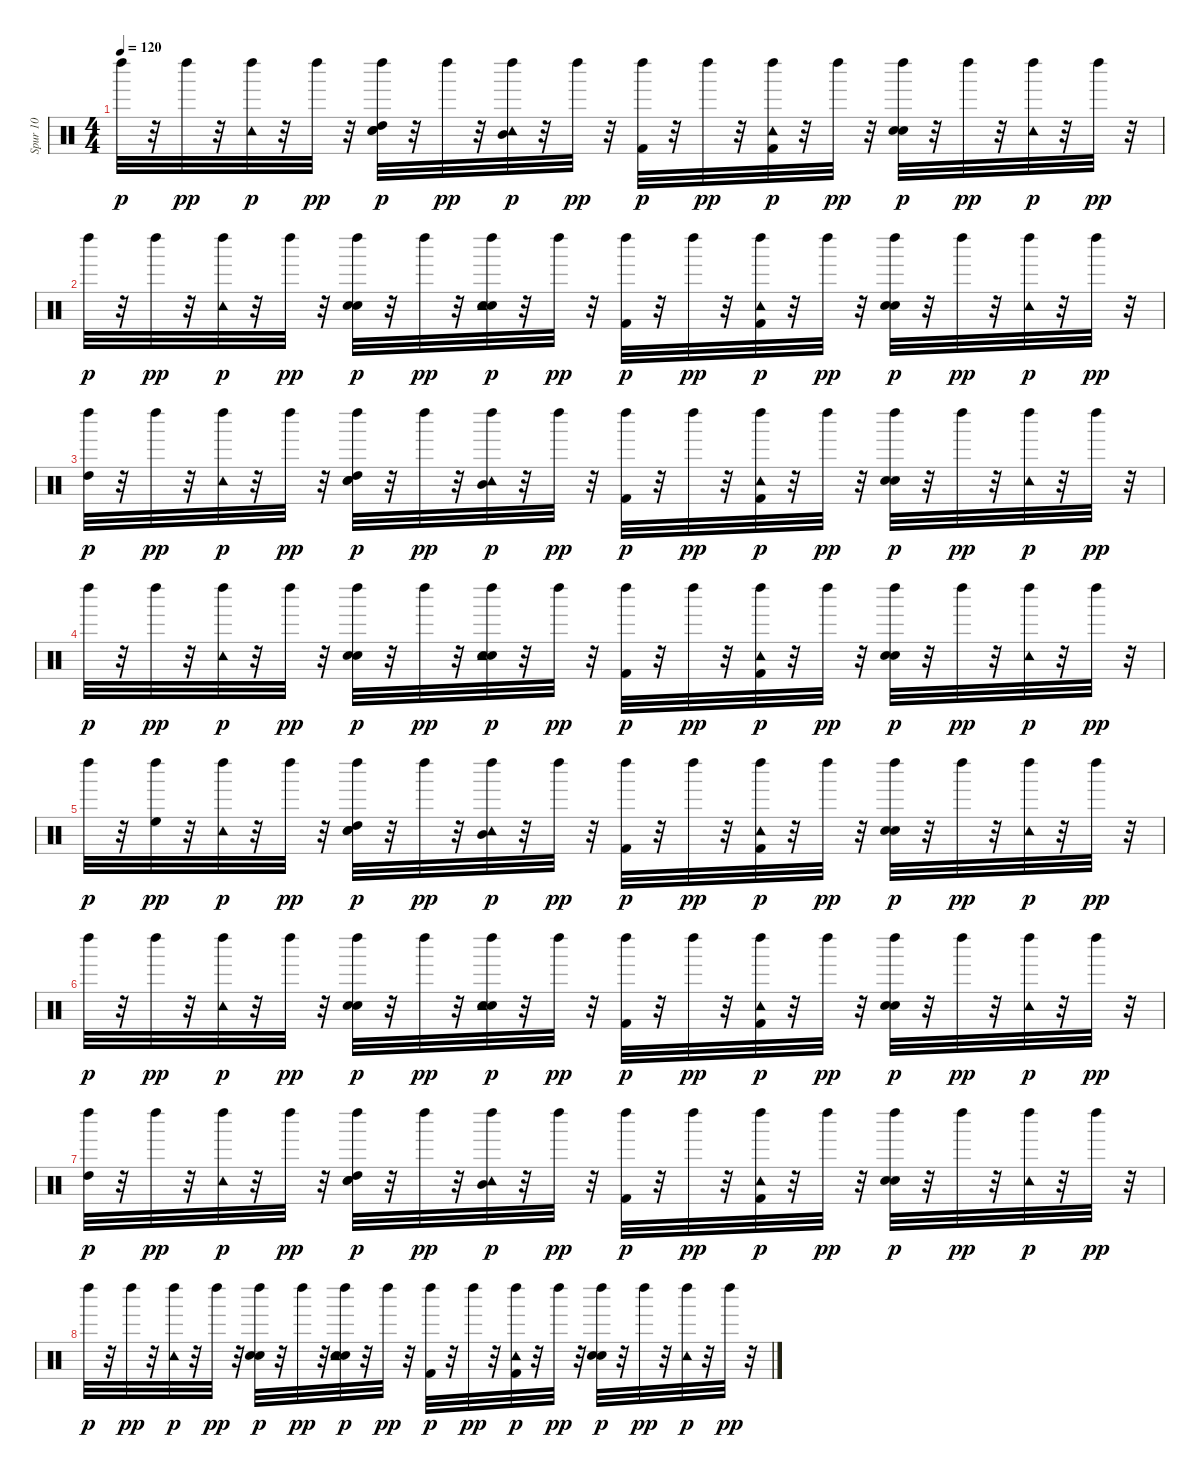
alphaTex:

\track ("Spur 10" "Spur 10") {instrument percussion}
\staff {score}
\articulation defaults
\ts (4 4)
\tempo 120
\clef neutral
\ks c "Left Maraca (hit)".32{dy p}
r.32 "Left Maraca (hit)".32{dy pp} r.32 ("Tambourine (hit)" "Left Maraca (hit)").32{dy p} r.32 "Left Maraca (hit)".32{dy pp} r.32 ("Hand Clap (hit)" "Electric Snare (hit)" "High Tom (hit)" "Left Maraca (hit)").32{dy p} r.32 "Left Maraca (hit)".32{dy pp} r.32 ("Mid Tom (hit)" "Tambourine (hit)" "Left Maraca (hit)").32{dy p} r.32 "Left Maraca (hit)".32{dy pp} r.32 ("Kick (hit) 2" "Left Maraca (hit)").32{dy p} r.32 "Left Maraca (hit)".32{dy pp} r.32 ("Kick (hit) 2" "Tambourine (hit)" "Left Maraca (hit)").32{dy p} r.32 "Left Maraca (hit)".32{dy pp} r.32 ("Hand Clap (hit)" "Electric Snare (hit)" "Left Maraca (hit)").32{dy p} r.32 "Left Maraca (hit)".32{dy pp} r.32 ("Tambourine (hit)" "Left Maraca (hit)").32{dy p} r.32 "Left Maraca (hit)".32{dy pp} r.32 |
"Left Maraca (hit)".32{dy p} r.32 "Left Maraca (hit)".32{dy pp} r.32 ("Tambourine (hit)" "Left Maraca (hit)").32{dy p} r.32 "Left Maraca (hit)".32{dy pp} r.32 ("Hand Clap (hit)" "Electric Snare (hit)" "Left Maraca (hit)").32{dy p} r.32 "Left Maraca (hit)".32{dy pp} r.32 ("Hand Clap (hit)" "Electric Snare (hit)" "Tambourine (hit)" "Left Maraca (hit)").32{dy p} r.32 "Left Maraca (hit)".32{dy pp} r.32 ("Kick (hit) 2" "Left Maraca (hit)").32{dy p} r.32 "Left Maraca (hit)".32{dy pp} r.32 ("Kick (hit) 2" "Tambourine (hit)" "Left Maraca (hit)").32{dy p} r.32 "Left Maraca (hit)".32{dy pp} r.32 ("Hand Clap (hit)" "Electric Snare (hit)" "Left Maraca (hit)").32{dy p} r.32 "Left Maraca (hit)".32{dy pp} r.32 ("Tambourine (hit)" "Left Maraca (hit)").32{dy p} r.32 "Left Maraca (hit)".32{dy pp} r.32 |
("High Tom (hit)" "Left Maraca (hit)").32{dy p} r.32 "Left Maraca (hit)".32{dy pp} r.32 ("Tambourine (hit)" "Left Maraca (hit)").32{dy p} r.32 "Left Maraca (hit)".32{dy pp} r.32 ("Hand Clap (hit)" "Electric Snare (hit)" "High Tom (hit)" "Left Maraca (hit)").32{dy p} r.32 "Left Maraca (hit)".32{dy pp} r.32 ("Mid Tom (hit)" "Tambourine (hit)" "Left Maraca (hit)").32{dy p} r.32 "Left Maraca (hit)".32{dy pp} r.32 ("Kick (hit) 2" "Left Maraca (hit)").32{dy p} r.32 "Left Maraca (hit)".32{dy pp} r.32 ("Kick (hit) 2" "Tambourine (hit)" "Left Maraca (hit)").32{dy p} r.32 "Left Maraca (hit)".32{dy pp} r.32 ("Hand Clap (hit)" "Electric Snare (hit)" "Left Maraca (hit)").32{dy p} r.32 "Left Maraca (hit)".32{dy pp} r.32 ("Tambourine (hit)" "Left Maraca (hit)").32{dy p} r.32 "Left Maraca (hit)".32{dy pp} r.32 |
"Left Maraca (hit)".32{dy p} r.32 "Left Maraca (hit)".32{dy pp} r.32 ("Tambourine (hit)" "Left Maraca (hit)").32{dy p} r.32 "Left Maraca (hit)".32{dy pp} r.32 ("Hand Clap (hit)" "Electric Snare (hit)" "Left Maraca (hit)").32{dy p} r.32 "Left Maraca (hit)".32{dy pp} r.32 ("Hand Clap (hit)" "Electric Snare (hit)" "Tambourine (hit)" "Left Maraca (hit)").32{dy p} r.32 "Left Maraca (hit)".32{dy pp} r.32 ("Kick (hit) 2" "Left Maraca (hit)").32{dy p} r.32 "Left Maraca (hit)".32{dy pp} r.32 ("Kick (hit) 2" "Tambourine (hit)" "Left Maraca (hit)").32{dy p} r.32 "Left Maraca (hit)".32{dy pp} r.32 ("Hand Clap (hit)" "Electric Snare (hit)" "Left Maraca (hit)").32{dy p} r.32 "Left Maraca (hit)".32{dy pp} r.32 ("Tambourine (hit)" "Left Maraca (hit)").32{dy p} r.32 "Left Maraca (hit)".32{dy pp} r.32 |
"Left Maraca (hit)".32{dy p} r.32 ("High Floor Tom (hit)" "Left Maraca (hit)").32{dy pp} r.32 ("Tambourine (hit)" "Left Maraca (hit)").32{dy p} r.32 "Left Maraca (hit)".32{dy pp} r.32 ("Hand Clap (hit)" "Electric Snare (hit)" "High Tom (hit)" "Left Maraca (hit)").32{dy p} r.32 "Left Maraca (hit)".32{dy pp} r.32 ("Mid Tom (hit)" "Tambourine (hit)" "Left Maraca (hit)").32{dy p} r.32 "Left Maraca (hit)".32{dy pp} r.32 ("Kick (hit) 2" "Left Maraca (hit)").32{dy p} r.32 "Left Maraca (hit)".32{dy pp} r.32 ("Kick (hit) 2" "Tambourine (hit)" "Left Maraca (hit)").32{dy p} r.32 "Left Maraca (hit)".32{dy pp} r.32 ("Hand Clap (hit)" "Electric Snare (hit)" "Left Maraca (hit)").32{dy p} r.32 "Left Maraca (hit)".32{dy pp} r.32 ("Tambourine (hit)" "Left Maraca (hit)").32{dy p} r.32 "Left Maraca (hit)".32{dy pp} r.32 |
"Left Maraca (hit)".32{dy p} r.32 "Left Maraca (hit)".32{dy pp} r.32 ("Tambourine (hit)" "Left Maraca (hit)").32{dy p} r.32 "Left Maraca (hit)".32{dy pp} r.32 ("Hand Clap (hit)" "Electric Snare (hit)" "Left Maraca (hit)").32{dy p} r.32 "Left Maraca (hit)".32{dy pp} r.32 ("Hand Clap (hit)" "Electric Snare (hit)" "Tambourine (hit)" "Left Maraca (hit)").32{dy p} r.32 "Left Maraca (hit)".32{dy pp} r.32 ("Kick (hit) 2" "Left Maraca (hit)").32{dy p} r.32 "Left Maraca (hit)".32{dy pp} r.32 ("Kick (hit) 2" "Tambourine (hit)" "Left Maraca (hit)").32{dy p} r.32 "Left Maraca (hit)".32{dy pp} r.32 ("Hand Clap (hit)" "Electric Snare (hit)" "Left Maraca (hit)").32{dy p} r.32 "Left Maraca (hit)".32{dy pp} r.32 ("Tambourine (hit)" "Left Maraca (hit)").32{dy p} r.32 "Left Maraca (hit)".32{dy pp} r.32 |
("High Tom (hit)" "Left Maraca (hit)").32{dy p} r.32 "Left Maraca (hit)".32{dy pp} r.32 ("Tambourine (hit)" "Left Maraca (hit)").32{dy p} r.32 "Left Maraca (hit)".32{dy pp} r.32 ("Hand Clap (hit)" "Electric Snare (hit)" "High Tom (hit)" "Left Maraca (hit)").32{dy p} r.32 "Left Maraca (hit)".32{dy pp} r.32 ("Mid Tom (hit)" "Tambourine (hit)" "Left Maraca (hit)").32{dy p} r.32 "Left Maraca (hit)".32{dy pp} r.32 ("Kick (hit) 2" "Left Maraca (hit)").32{dy p} r.32 "Left Maraca (hit)".32{dy pp} r.32 ("Kick (hit) 2" "Tambourine (hit)" "Left Maraca (hit)").32{dy p} r.32 "Left Maraca (hit)".32{dy pp} r.32 ("Hand Clap (hit)" "Electric Snare (hit)" "Left Maraca (hit)").32{dy p} r.32 "Left Maraca (hit)".32{dy pp} r.32 ("Tambourine (hit)" "Left Maraca (hit)").32{dy p} r.32 "Left Maraca (hit)".32{dy pp} r.32 |
"Left Maraca (hit)".32{dy p} r.32 "Left Maraca (hit)".32{dy pp} r.32 ("Tambourine (hit)" "Left Maraca (hit)").32{dy p} r.32 "Left Maraca (hit)".32{dy pp} r.32 ("Hand Clap (hit)" "Electric Snare (hit)" "Left Maraca (hit)").32{dy p} r.32 "Left Maraca (hit)".32{dy pp} r.32 ("Hand Clap (hit)" "Electric Snare (hit)" "Tambourine (hit)" "Left Maraca (hit)").32{dy p} r.32 "Left Maraca (hit)".32{dy pp} r.32 ("Kick (hit) 2" "Left Maraca (hit)").32{dy p} r.32 "Left Maraca (hit)".32{dy pp} r.32 ("Kick (hit) 2" "Tambourine (hit)" "Left Maraca (hit)").32{dy p} r.32 "Left Maraca (hit)".32{dy pp} r.32 ("Hand Clap (hit)" "Electric Snare (hit)" "Left Maraca (hit)").32{dy p} r.32 "Left Maraca (hit)".32{dy pp} r.32 ("Tambourine (hit)" "Left Maraca (hit)").32{dy p} r.32 "Left Maraca (hit)".32{dy pp} r.32
